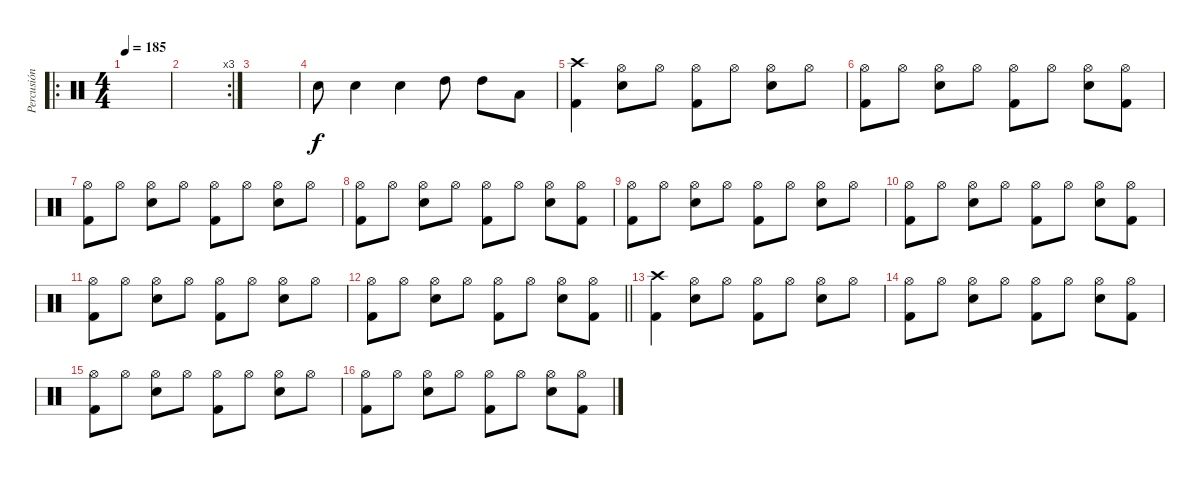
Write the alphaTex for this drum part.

\track ("Percusión" "Percusión") {instrument percussion}
\staff {score}
\articulation defaults
\ro
\ts (4 4)
\tempo 185
\clef neutral
\ks c
|
\rc 3
|
|
"Electric Snare (hit)".8 "Electric Snare (hit)".4 "Electric Snare (hit)".4 "High Tom (hit)".8 "High Tom (hit)".8 "Low Tom (hit)".8 |
("Crash high (hit)" "Kick (hit) 2").4 ("Hi-Hat (open)" "Electric Snare (hit)").8 "Hi-Hat (open)".8 ("Hi-Hat (open)" "Kick (hit) 2").8 "Hi-Hat (open)".8 ("Hi-Hat (open)" "Electric Snare (hit)").8 "Hi-Hat (open)".8 |
("Hi-Hat (open)" "Kick (hit) 2").8 "Hi-Hat (open)".8 ("Hi-Hat (open)" "Electric Snare (hit)").8 "Hi-Hat (open)".8 ("Hi-Hat (open)" "Kick (hit) 2").8 "Hi-Hat (open)".8 ("Hi-Hat (open)" "Electric Snare (hit)").8 ("Hi-Hat (open)" "Kick (hit) 2").8 |
("Hi-Hat (open)" "Kick (hit) 2").8 "Hi-Hat (open)".8 ("Hi-Hat (open)" "Electric Snare (hit)").8 "Hi-Hat (open)".8 ("Hi-Hat (open)" "Kick (hit) 2").8 "Hi-Hat (open)".8 ("Hi-Hat (open)" "Electric Snare (hit)").8 "Hi-Hat (open)".8 |
("Hi-Hat (open)" "Kick (hit) 2").8 "Hi-Hat (open)".8 ("Hi-Hat (open)" "Electric Snare (hit)").8 "Hi-Hat (open)".8 ("Hi-Hat (open)" "Kick (hit) 2").8 "Hi-Hat (open)".8 ("Hi-Hat (open)" "Electric Snare (hit)").8 ("Hi-Hat (open)" "Kick (hit) 2").8 |
("Hi-Hat (open)" "Kick (hit) 2").8 "Hi-Hat (open)".8 ("Hi-Hat (open)" "Electric Snare (hit)").8 "Hi-Hat (open)".8 ("Hi-Hat (open)" "Kick (hit) 2").8 "Hi-Hat (open)".8 ("Hi-Hat (open)" "Electric Snare (hit)").8 "Hi-Hat (open)".8 |
("Hi-Hat (open)" "Kick (hit) 2").8 "Hi-Hat (open)".8 ("Hi-Hat (open)" "Electric Snare (hit)").8 "Hi-Hat (open)".8 ("Hi-Hat (open)" "Kick (hit) 2").8 "Hi-Hat (open)".8 ("Hi-Hat (open)" "Electric Snare (hit)").8 ("Hi-Hat (open)" "Kick (hit) 2").8 |
("Hi-Hat (open)" "Kick (hit) 2").8 "Hi-Hat (open)".8 ("Hi-Hat (open)" "Electric Snare (hit)").8 "Hi-Hat (open)".8 ("Hi-Hat (open)" "Kick (hit) 2").8 "Hi-Hat (open)".8 ("Hi-Hat (open)" "Electric Snare (hit)").8 "Hi-Hat (open)".8 |
\barLineRight lightlight
("Hi-Hat (open)" "Kick (hit) 2").8 "Hi-Hat (open)".8 ("Hi-Hat (open)" "Electric Snare (hit)").8 "Hi-Hat (open)".8 ("Hi-Hat (open)" "Kick (hit) 2").8 "Hi-Hat (open)".8 ("Hi-Hat (open)" "Electric Snare (hit)").8 ("Hi-Hat (open)" "Kick (hit) 2").8 |
\section ("" "")
("Crash high (hit)" "Kick (hit) 2").4 ("Hi-Hat (open)" "Electric Snare (hit)").8 "Hi-Hat (open)".8 ("Hi-Hat (open)" "Kick (hit) 2").8 "Hi-Hat (open)".8 ("Hi-Hat (open)" "Electric Snare (hit)").8 "Hi-Hat (open)".8 |
("Hi-Hat (open)" "Kick (hit) 2").8 "Hi-Hat (open)".8 ("Hi-Hat (open)" "Electric Snare (hit)").8 "Hi-Hat (open)".8 ("Hi-Hat (open)" "Kick (hit) 2").8 "Hi-Hat (open)".8 ("Hi-Hat (open)" "Electric Snare (hit)").8 ("Hi-Hat (open)" "Kick (hit) 2").8 |
("Hi-Hat (open)" "Kick (hit) 2").8 "Hi-Hat (open)".8 ("Hi-Hat (open)" "Electric Snare (hit)").8 "Hi-Hat (open)".8 ("Hi-Hat (open)" "Kick (hit) 2").8 "Hi-Hat (open)".8 ("Hi-Hat (open)" "Electric Snare (hit)").8 "Hi-Hat (open)".8 |
("Hi-Hat (open)" "Kick (hit) 2").8 "Hi-Hat (open)".8 ("Hi-Hat (open)" "Electric Snare (hit)").8 "Hi-Hat (open)".8 ("Hi-Hat (open)" "Kick (hit) 2").8 "Hi-Hat (open)".8 ("Hi-Hat (open)" "Electric Snare (hit)").8 ("Hi-Hat (open)" "Kick (hit) 2").8
